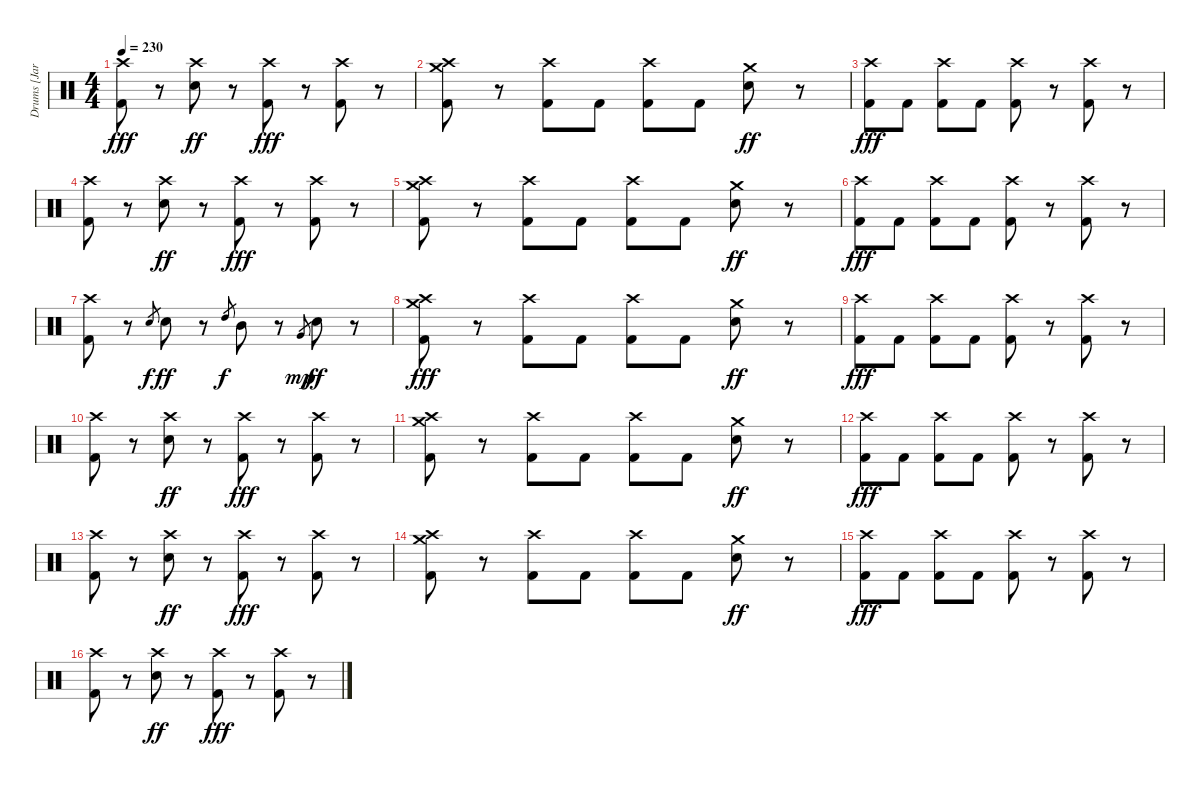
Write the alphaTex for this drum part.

\track ("Drums [Jared]" "Drums [Jar") {instrument percussion}
\staff {score}
\articulation defaults
\ts (4 4)
\tempo 230
\clef neutral
\ks c
("Crash high (hit)" "Kick (hit) 2").8{dy fff} r.8 ("Crash high (hit)" "Electric Snare (hit)").8{dy ff} r.8 ("Crash high (hit)" "Kick (hit) 2").8{dy fff} r.8 ("Crash high (hit)" "Kick (hit) 2").8 r.8 |
("Crash medium (hit)" "Crash high (hit)" "Kick (hit) 2").8 r.8 ("Crash high (hit)" "Kick (hit) 2").8 "Kick (hit) 2".8 ("Crash high (hit)" "Kick (hit) 2").8 "Kick (hit) 2".8 ("Crash medium (hit)" "Electric Snare (hit)").8{dy ff} r.8 |
("Crash high (hit)" "Kick (hit) 2").8{dy fff} "Kick (hit) 2".8 ("Crash high (hit)" "Kick (hit) 2").8 "Kick (hit) 2".8 ("Crash high (hit)" "Kick (hit) 2").8 r.8 ("Crash high (hit)" "Kick (hit) 2").8 r.8 |
("Crash high (hit)" "Kick (hit) 2").8 r.8 ("Crash high (hit)" "Electric Snare (hit)").8{dy ff} r.8 ("Crash high (hit)" "Kick (hit) 2").8{dy fff} r.8 ("Crash high (hit)" "Kick (hit) 2").8 r.8 |
("Crash medium (hit)" "Crash high (hit)" "Kick (hit) 2").8 r.8 ("Crash high (hit)" "Kick (hit) 2").8 "Kick (hit) 2".8 ("Crash high (hit)" "Kick (hit) 2").8 "Kick (hit) 2".8 ("Crash medium (hit)" "Electric Snare (hit)").8{dy ff} r.8 |
("Crash high (hit)" "Kick (hit) 2").8{dy fff} "Kick (hit) 2".8 ("Crash high (hit)" "Kick (hit) 2").8 "Kick (hit) 2".8 ("Crash high (hit)" "Kick (hit) 2").8 r.8 ("Crash high (hit)" "Kick (hit) 2").8 r.8 |
("Crash high (hit)" "Kick (hit) 2").8 r.8 "Electric Snare (hit)".8{gr dy f} "Electric Snare (hit)".8{dy ff} r.8 "High Tom (hit)".8{gr dy f} "Mid Tom (hit)".8 r.8 "Very Low Tom (hit)".8{gr dy mp} "Electric Snare (hit)".8{dy ff} r.8 |
("Crash medium (hit)" "Crash high (hit)" "Kick (hit) 2").8{dy fff} r.8 ("Crash high (hit)" "Kick (hit) 2").8 "Kick (hit) 2".8 ("Crash high (hit)" "Kick (hit) 2").8 "Kick (hit) 2".8 ("Crash medium (hit)" "Electric Snare (hit)").8{dy ff} r.8 |
("Crash high (hit)" "Kick (hit) 2").8{dy fff} "Kick (hit) 2".8 ("Crash high (hit)" "Kick (hit) 2").8 "Kick (hit) 2".8 ("Crash high (hit)" "Kick (hit) 2").8 r.8 ("Crash high (hit)" "Kick (hit) 2").8 r.8 |
("Crash high (hit)" "Kick (hit) 2").8 r.8 ("Crash high (hit)" "Electric Snare (hit)").8{dy ff} r.8 ("Crash high (hit)" "Kick (hit) 2").8{dy fff} r.8 ("Crash high (hit)" "Kick (hit) 2").8 r.8 |
("Crash medium (hit)" "Crash high (hit)" "Kick (hit) 2").8 r.8 ("Crash high (hit)" "Kick (hit) 2").8 "Kick (hit) 2".8 ("Crash high (hit)" "Kick (hit) 2").8 "Kick (hit) 2".8 ("Crash medium (hit)" "Electric Snare (hit)").8{dy ff} r.8 |
("Crash high (hit)" "Kick (hit) 2").8{dy fff} "Kick (hit) 2".8 ("Crash high (hit)" "Kick (hit) 2").8 "Kick (hit) 2".8 ("Crash high (hit)" "Kick (hit) 2").8 r.8 ("Crash high (hit)" "Kick (hit) 2").8 r.8 |
("Crash high (hit)" "Kick (hit) 2").8 r.8 ("Crash high (hit)" "Electric Snare (hit)").8{dy ff} r.8 ("Crash high (hit)" "Kick (hit) 2").8{dy fff} r.8 ("Crash high (hit)" "Kick (hit) 2").8 r.8 |
("Crash medium (hit)" "Crash high (hit)" "Kick (hit) 2").8 r.8 ("Crash high (hit)" "Kick (hit) 2").8 "Kick (hit) 2".8 ("Crash high (hit)" "Kick (hit) 2").8 "Kick (hit) 2".8 ("Crash medium (hit)" "Electric Snare (hit)").8{dy ff} r.8 |
("Crash high (hit)" "Kick (hit) 2").8{dy fff} "Kick (hit) 2".8 ("Crash high (hit)" "Kick (hit) 2").8 "Kick (hit) 2".8 ("Crash high (hit)" "Kick (hit) 2").8 r.8 ("Crash high (hit)" "Kick (hit) 2").8 r.8 |
("Crash high (hit)" "Kick (hit) 2").8 r.8 ("Crash high (hit)" "Electric Snare (hit)").8{dy ff} r.8 ("Crash high (hit)" "Kick (hit) 2").8{dy fff} r.8 ("Crash high (hit)" "Kick (hit) 2").8 r.8
